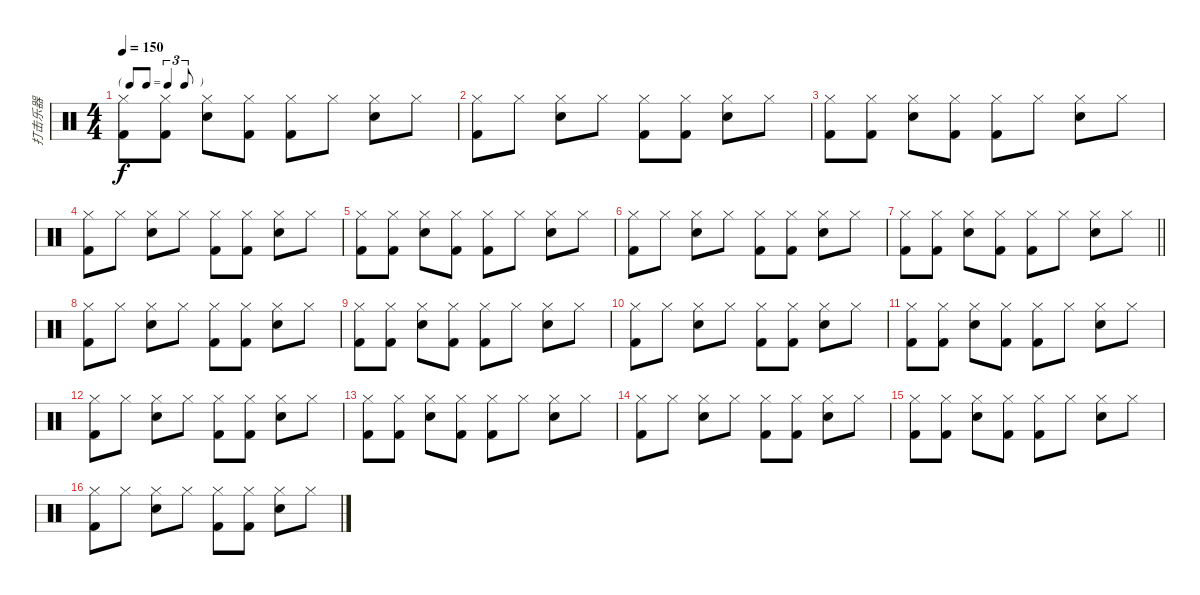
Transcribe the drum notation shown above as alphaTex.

\track ("打击乐器" "打击乐器") {instrument percussion}
\staff {score}
\articulation defaults
\ts (4 4)
\tf triplet8th
\tempo 150
\clef neutral
\ks c
("Hi-Hat (closed)" "Kick (hit) 2").8{dy f} ("Hi-Hat (closed)" "Kick (hit) 2").8 ("Hi-Hat (closed)" "Snare (hit) 2").8 ("Hi-Hat (closed)" "Kick (hit) 2").8 ("Hi-Hat (closed)" "Kick (hit) 2").8 "Hi-Hat (closed)".8 ("Hi-Hat (closed)" "Snare (hit) 2").8 "Hi-Hat (closed)".8 |
("Hi-Hat (closed)" "Kick (hit) 2").8 "Hi-Hat (closed)".8 ("Hi-Hat (closed)" "Snare (hit) 2").8 "Hi-Hat (closed)".8 ("Hi-Hat (closed)" "Kick (hit) 2").8 ("Hi-Hat (closed)" "Kick (hit) 2").8 ("Hi-Hat (closed)" "Snare (hit) 2").8 "Hi-Hat (closed)".8 |
("Hi-Hat (closed)" "Kick (hit) 2").8 ("Hi-Hat (closed)" "Kick (hit) 2").8 ("Hi-Hat (closed)" "Snare (hit) 2").8 ("Hi-Hat (closed)" "Kick (hit) 2").8 ("Hi-Hat (closed)" "Kick (hit) 2").8 "Hi-Hat (closed)".8 ("Hi-Hat (closed)" "Snare (hit) 2").8 "Hi-Hat (closed)".8 |
("Hi-Hat (closed)" "Kick (hit) 2").8 "Hi-Hat (closed)".8 ("Hi-Hat (closed)" "Snare (hit) 2").8 "Hi-Hat (closed)".8 ("Hi-Hat (closed)" "Kick (hit) 2").8 ("Hi-Hat (closed)" "Kick (hit) 2").8 ("Hi-Hat (closed)" "Snare (hit) 2").8 "Hi-Hat (closed)".8 |
("Hi-Hat (closed)" "Kick (hit) 2").8 ("Hi-Hat (closed)" "Kick (hit) 2").8 ("Hi-Hat (closed)" "Snare (hit) 2").8 ("Hi-Hat (closed)" "Kick (hit) 2").8 ("Hi-Hat (closed)" "Kick (hit) 2").8 "Hi-Hat (closed)".8 ("Hi-Hat (closed)" "Snare (hit) 2").8 "Hi-Hat (closed)".8 |
("Hi-Hat (closed)" "Kick (hit) 2").8 "Hi-Hat (closed)".8 ("Hi-Hat (closed)" "Snare (hit) 2").8 "Hi-Hat (closed)".8 ("Hi-Hat (closed)" "Kick (hit) 2").8 ("Hi-Hat (closed)" "Kick (hit) 2").8 ("Hi-Hat (closed)" "Snare (hit) 2").8 "Hi-Hat (closed)".8 |
\barLineRight lightlight
("Hi-Hat (closed)" "Kick (hit) 2").8 ("Hi-Hat (closed)" "Kick (hit) 2").8 ("Hi-Hat (closed)" "Snare (hit) 2").8 ("Hi-Hat (closed)" "Kick (hit) 2").8 ("Hi-Hat (closed)" "Kick (hit) 2").8 "Hi-Hat (closed)".8 ("Hi-Hat (closed)" "Snare (hit) 2").8 "Hi-Hat (closed)".8 |
("Hi-Hat (closed)" "Kick (hit) 2").8 "Hi-Hat (closed)".8 ("Hi-Hat (closed)" "Snare (hit) 2").8 "Hi-Hat (closed)".8 ("Hi-Hat (closed)" "Kick (hit) 2").8 ("Hi-Hat (closed)" "Kick (hit) 2").8 ("Hi-Hat (closed)" "Snare (hit) 2").8 "Hi-Hat (closed)".8 |
("Hi-Hat (closed)" "Kick (hit) 2").8 ("Hi-Hat (closed)" "Kick (hit) 2").8 ("Hi-Hat (closed)" "Snare (hit) 2").8 ("Hi-Hat (closed)" "Kick (hit) 2").8 ("Hi-Hat (closed)" "Kick (hit) 2").8 "Hi-Hat (closed)".8 ("Hi-Hat (closed)" "Snare (hit) 2").8 "Hi-Hat (closed)".8 |
("Hi-Hat (closed)" "Kick (hit) 2").8 "Hi-Hat (closed)".8 ("Hi-Hat (closed)" "Snare (hit) 2").8 "Hi-Hat (closed)".8 ("Hi-Hat (closed)" "Kick (hit) 2").8 ("Hi-Hat (closed)" "Kick (hit) 2").8 ("Hi-Hat (closed)" "Snare (hit) 2").8 "Hi-Hat (closed)".8 |
("Hi-Hat (closed)" "Kick (hit) 2").8 ("Hi-Hat (closed)" "Kick (hit) 2").8 ("Hi-Hat (closed)" "Snare (hit) 2").8 ("Hi-Hat (closed)" "Kick (hit) 2").8 ("Hi-Hat (closed)" "Kick (hit) 2").8 "Hi-Hat (closed)".8 ("Hi-Hat (closed)" "Snare (hit) 2").8 "Hi-Hat (closed)".8 |
("Hi-Hat (closed)" "Kick (hit) 2").8 "Hi-Hat (closed)".8 ("Hi-Hat (closed)" "Snare (hit) 2").8 "Hi-Hat (closed)".8 ("Hi-Hat (closed)" "Kick (hit) 2").8 ("Hi-Hat (closed)" "Kick (hit) 2").8 ("Hi-Hat (closed)" "Snare (hit) 2").8 "Hi-Hat (closed)".8 |
("Hi-Hat (closed)" "Kick (hit) 2").8 ("Hi-Hat (closed)" "Kick (hit) 2").8 ("Hi-Hat (closed)" "Snare (hit) 2").8 ("Hi-Hat (closed)" "Kick (hit) 2").8 ("Hi-Hat (closed)" "Kick (hit) 2").8 "Hi-Hat (closed)".8 ("Hi-Hat (closed)" "Snare (hit) 2").8 "Hi-Hat (closed)".8 |
("Hi-Hat (closed)" "Kick (hit) 2").8 "Hi-Hat (closed)".8 ("Hi-Hat (closed)" "Snare (hit) 2").8 "Hi-Hat (closed)".8 ("Hi-Hat (closed)" "Kick (hit) 2").8 ("Hi-Hat (closed)" "Kick (hit) 2").8 ("Hi-Hat (closed)" "Snare (hit) 2").8 "Hi-Hat (closed)".8 |
("Hi-Hat (closed)" "Kick (hit) 2").8 ("Hi-Hat (closed)" "Kick (hit) 2").8 ("Hi-Hat (closed)" "Snare (hit) 2").8 ("Hi-Hat (closed)" "Kick (hit) 2").8 ("Hi-Hat (closed)" "Kick (hit) 2").8 "Hi-Hat (closed)".8 ("Hi-Hat (closed)" "Snare (hit) 2").8 "Hi-Hat (closed)".8 |
("Hi-Hat (closed)" "Kick (hit) 2").8 "Hi-Hat (closed)".8 ("Hi-Hat (closed)" "Snare (hit) 2").8 "Hi-Hat (closed)".8 ("Hi-Hat (closed)" "Kick (hit) 2").8 ("Hi-Hat (closed)" "Kick (hit) 2").8 ("Hi-Hat (closed)" "Snare (hit) 2").8 "Hi-Hat (closed)".8
